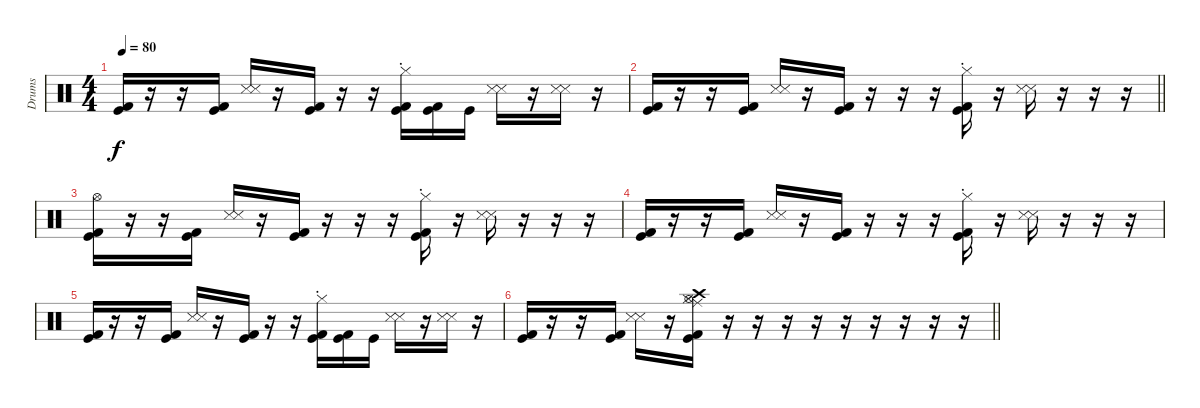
\track ("Drums" "Drums") {instrument percussion}
\staff {score}
\articulation defaults
\ts (4 4)
\tempo 80
\clef neutral
\ks c
("Kick (hit) 2" "Kick (hit)").16{dy f} r.16 r.16 ("Kick (hit) 2" "Kick (hit)").16 ("Snare (side stick) 3" "Snare (side stick) 3").16 r.16 ("Kick (hit) 2" "Kick (hit)").16 r.16 r.16 ("Hi-Hat (closed)"{st} "Kick (hit) 2" "Kick (hit)").16 ("Kick (hit) 2" "Kick (hit)").16 "Kick (hit)".16 ("Snare (side stick) 3" "Snare (side stick) 3").16 r.16 ("Snare (side stick) 3" "Snare (side stick) 3").16 r.16 |
\barLineRight lightlight
("Kick (hit) 2" "Kick (hit)").16 r.16 r.16 ("Kick (hit) 2" "Kick (hit)").16 ("Snare (side stick) 3" "Snare (side stick) 3").16 r.16 ("Kick (hit) 2" "Kick (hit)").16 r.16 r.16 r.16 ("Hi-Hat (closed)"{st} "Kick (hit) 2" "Kick (hit)").16 r.16 ("Snare (side stick) 3" "Snare (side stick) 3").16 r.16 r.16 r.16 |
("Hi-Hat (open)" "Kick (hit) 2" "Kick (hit)").16 r.16 r.16 ("Kick (hit) 2" "Kick (hit)").16 ("Snare (side stick) 3" "Snare (side stick) 3").16 r.16 ("Kick (hit) 2" "Kick (hit)").16 r.16 r.16 r.16 ("Hi-Hat (closed)"{st} "Kick (hit) 2" "Kick (hit)").16 r.16 ("Snare (side stick) 3" "Snare (side stick) 3").16 r.16 r.16 r.16 |
("Kick (hit) 2" "Kick (hit)").16 r.16 r.16 ("Kick (hit) 2" "Kick (hit)").16 ("Snare (side stick) 3" "Snare (side stick) 3").16 r.16 ("Kick (hit) 2" "Kick (hit)").16 r.16 r.16 r.16 ("Hi-Hat (closed)"{st} "Kick (hit) 2" "Kick (hit)").16 r.16 ("Snare (side stick) 3" "Snare (side stick) 3").16 r.16 r.16 r.16 |
("Kick (hit) 2" "Kick (hit)").16 r.16 r.16 ("Kick (hit) 2" "Kick (hit)").16 ("Snare (side stick) 3" "Snare (side stick) 3").16 r.16 ("Kick (hit) 2" "Kick (hit)").16 r.16 r.16 ("Hi-Hat (closed)"{st} "Kick (hit) 2" "Kick (hit)").16 ("Kick (hit) 2" "Kick (hit)").16 "Kick (hit)".16 ("Snare (side stick) 3" "Snare (side stick) 3").16 r.16 ("Snare (side stick) 3" "Snare (side stick) 3").16 r.16 |
\barLineRight lightlight
("Kick (hit) 2" "Kick (hit)").16 r.16 r.16 ("Kick (hit) 2" "Kick (hit)").16 ("Snare (side stick) 3" "Snare (side stick) 3").16 r.16 ("Hi-Hat (open)" "Hi-Hat (closed)" "Ride (middle)" "Crash high (hit)" "Kick (hit) 2" "Kick (hit)").16 r.16 r.16 r.16 r.16 r.16 r.16 r.16 r.16 r.16
